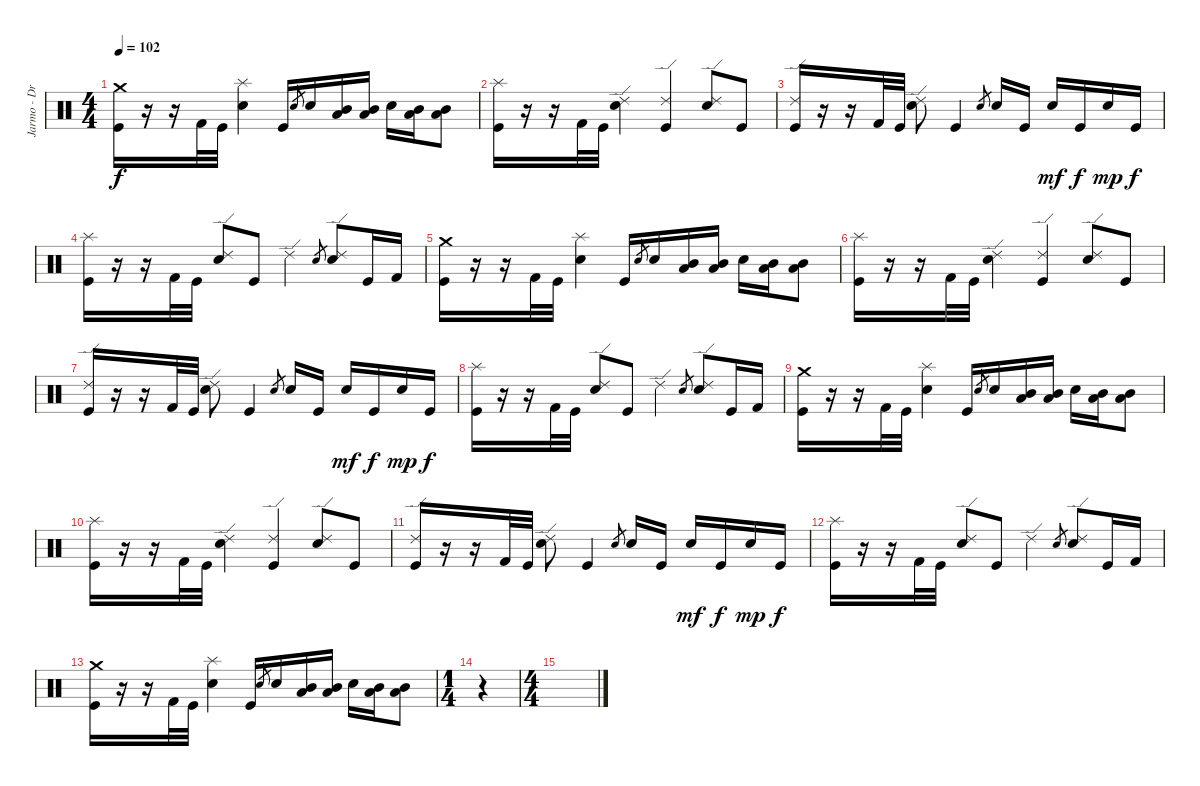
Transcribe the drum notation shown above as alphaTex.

\track ("Jarmo - Drums" "Jarmo - Dr") {instrument percussion}
\staff {score}
\articulation defaults
\ts (4 4)
\tempo 102
\clef neutral
\ks c
("Kick (hit)" "Crash medium (hit)").16{dy f} r.16 r.16 "Kick (hit) 2".32 "Kick (hit)".32 ("Electric Snare (hit)" "Splash (hit)").4 "Kick (hit)".16 "Snare (hit) 2".8{gr} "Electric Snare (hit)".16 ("Mid Tom (hit)" "Low Tom (hit)").16 ("Mid Tom (hit)" "Low Tom (hit)").16 "Electric Snare (hit)".16 ("Mid Tom (hit)" "Low Tom (hit)").16 ("Mid Tom (hit)" "Low Tom (hit)").8 |
("Kick (hit)" "Splash (hit)").16 r.16 r.16 "Kick (hit) 2".32 "Kick (hit)".32 ("Electric Snare (hit)" "Ride (edge) 2").4 ("Kick (hit)" "Ride (edge) 2").4 ("Electric Snare (hit)" "Ride (edge) 2").8 "Kick (hit)".8 |
("Ride (edge) 2" "Kick (hit)").16 r.16 r.16 "Kick (hit) 2".32 "Kick (hit)".32 ("Electric Snare (hit)" "Ride (edge) 2").8 "Kick (hit)".4 "Snare (hit) 2".8{gr} "Electric Snare (hit)".16 "Kick (hit)".16 "Electric Snare (hit)".16{dy mf} "Kick (hit)".16{dy f} "Electric Snare (hit)".16{dy mp} "Kick (hit)".16{dy f} |
("Splash (hit)" "Kick (hit)").16 r.16 r.16 "Kick (hit) 2".32 "Kick (hit)".32 ("Electric Snare (hit)" "Ride (edge) 2").8 "Kick (hit)".8 "Ride (edge) 2".4 "Snare (hit) 2".8{gr} ("Electric Snare (hit)" "Ride (edge) 2").8 "Kick (hit)".16 "Kick (hit) 2".16 |
("Kick (hit)" "Crash medium (hit)").16 r.16 r.16 "Kick (hit) 2".32 "Kick (hit)".32 ("Electric Snare (hit)" "Splash (hit)").4 "Kick (hit)".16 "Snare (hit) 2".8{gr} "Electric Snare (hit)".16 ("Mid Tom (hit)" "Low Tom (hit)").16 ("Mid Tom (hit)" "Low Tom (hit)").16 "Electric Snare (hit)".16 ("Mid Tom (hit)" "Low Tom (hit)").16 ("Mid Tom (hit)" "Low Tom (hit)").8 |
("Kick (hit)" "Splash (hit)").16 r.16 r.16 "Kick (hit) 2".32 "Kick (hit)".32 ("Electric Snare (hit)" "Ride (edge) 2").4 ("Kick (hit)" "Ride (edge) 2").4 ("Electric Snare (hit)" "Ride (edge) 2").8 "Kick (hit)".8 |
("Ride (edge) 2" "Kick (hit)").16 r.16 r.16 "Kick (hit) 2".32 "Kick (hit)".32 ("Electric Snare (hit)" "Ride (edge) 2").8 "Kick (hit)".4 "Snare (hit) 2".8{gr} "Electric Snare (hit)".16 "Kick (hit)".16 "Electric Snare (hit)".16{dy mf} "Kick (hit)".16{dy f} "Electric Snare (hit)".16{dy mp} "Kick (hit)".16{dy f} |
("Splash (hit)" "Kick (hit)").16 r.16 r.16 "Kick (hit) 2".32 "Kick (hit)".32 ("Electric Snare (hit)" "Ride (edge) 2").8 "Kick (hit)".8 "Ride (edge) 2".4 "Snare (hit) 2".8{gr} ("Electric Snare (hit)" "Ride (edge) 2").8 "Kick (hit)".16 "Kick (hit) 2".16 |
("Kick (hit)" "Crash medium (hit)").16 r.16 r.16 "Kick (hit) 2".32 "Kick (hit)".32 ("Electric Snare (hit)" "Splash (hit)").4 "Kick (hit)".16 "Snare (hit) 2".8{gr} "Electric Snare (hit)".16 ("Mid Tom (hit)" "Low Tom (hit)").16 ("Mid Tom (hit)" "Low Tom (hit)").16 "Electric Snare (hit)".16 ("Mid Tom (hit)" "Low Tom (hit)").16 ("Mid Tom (hit)" "Low Tom (hit)").8 |
("Kick (hit)" "Splash (hit)").16{volume 0} r.16 r.16 "Kick (hit) 2".32 "Kick (hit)".32 ("Electric Snare (hit)" "Ride (edge) 2").4 ("Kick (hit)" "Ride (edge) 2").4 ("Electric Snare (hit)" "Ride (edge) 2").8 "Kick (hit)".8 |
("Ride (edge) 2" "Kick (hit)").16 r.16 r.16 "Kick (hit) 2".32 "Kick (hit)".32 ("Electric Snare (hit)" "Ride (edge) 2").8 "Kick (hit)".4 "Snare (hit) 2".8{gr} "Electric Snare (hit)".16 "Kick (hit)".16 "Electric Snare (hit)".16{dy mf} "Kick (hit)".16{dy f} "Electric Snare (hit)".16{dy mp} "Kick (hit)".16{dy f} |
("Splash (hit)" "Kick (hit)").16 r.16 r.16 "Kick (hit) 2".32 "Kick (hit)".32 ("Electric Snare (hit)" "Ride (edge) 2").8 "Kick (hit)".8 "Ride (edge) 2".4 "Snare (hit) 2".8{gr} ("Electric Snare (hit)" "Ride (edge) 2").8 "Kick (hit)".16 "Kick (hit) 2".16 |
("Kick (hit)" "Crash medium (hit)").16 r.16 r.16 "Kick (hit) 2".32 "Kick (hit)".32 ("Electric Snare (hit)" "Splash (hit)").4 "Kick (hit)".16 "Snare (hit) 2".8{gr} "Electric Snare (hit)".16 ("Mid Tom (hit)" "Low Tom (hit)").16 ("Mid Tom (hit)" "Low Tom (hit)").16 "Electric Snare (hit)".16 ("Mid Tom (hit)" "Low Tom (hit)").16 ("Mid Tom (hit)" "Low Tom (hit)").8 |
\ts (1 4)
r.4{volume 13} |
\ts (4 4)
